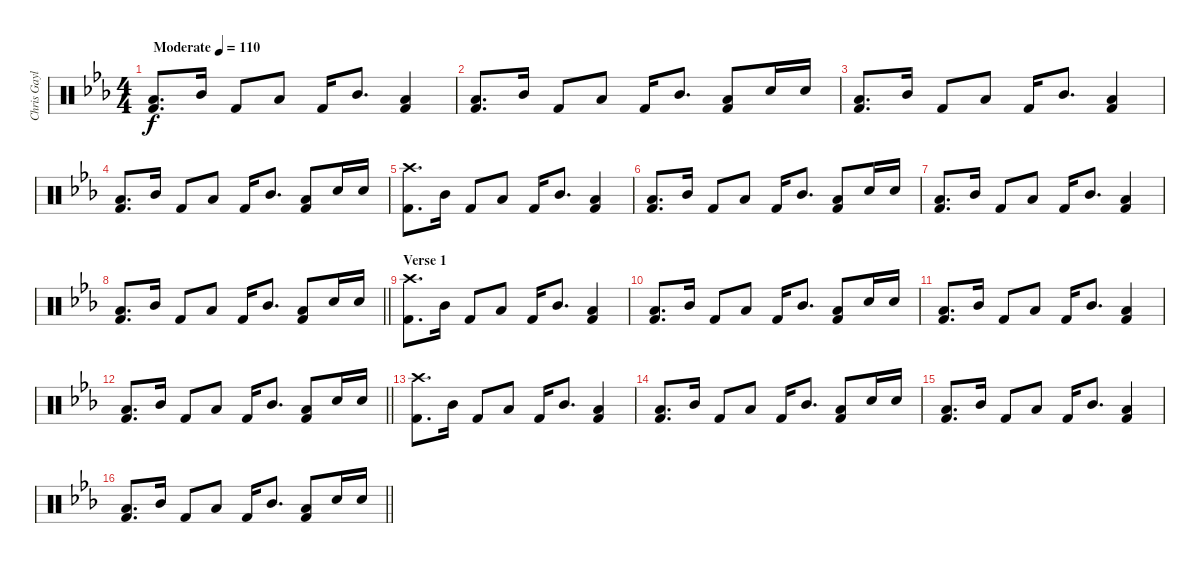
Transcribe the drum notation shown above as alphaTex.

\track ("Chris Gaylor (Percussion)" "Chris Gayl") {instrument percussion}
\staff {score}
\articulation defaults
\ts (4 4)
\tempo (110 "Moderate")
\clef neutral
\ks eb
("Low Tom (hit)" "Kick (hit) 2").8{d dy f} "Mid Tom (hit)".16 "Kick (hit) 2".8 "Low Tom (hit)".8 "Kick (hit) 2".16 "Mid Tom (hit)".8{d} ("Low Tom (hit)" "Kick (hit) 2").4 |
("Low Tom (hit)" "Kick (hit) 2").8{d} "Mid Tom (hit)".16 "Kick (hit) 2".8 "Low Tom (hit)".8 "Kick (hit) 2".16 "Mid Tom (hit)".8{d} ("Low Tom (hit)" "Kick (hit) 2").8 "Electric Snare (hit)".16 "Electric Snare (hit)".16 |
("Low Tom (hit)" "Kick (hit) 2").8{d} "Mid Tom (hit)".16 "Kick (hit) 2".8 "Low Tom (hit)".8 "Kick (hit) 2".16 "Mid Tom (hit)".8{d} ("Low Tom (hit)" "Kick (hit) 2").4 |
("Low Tom (hit)" "Kick (hit) 2").8{d} "Mid Tom (hit)".16 "Kick (hit) 2".8 "Low Tom (hit)".8 "Kick (hit) 2".16 "Mid Tom (hit)".8{d} ("Low Tom (hit)" "Kick (hit) 2").8 "Electric Snare (hit)".16 "Electric Snare (hit)".16 |
("Crash high (hit)" "Kick (hit) 2").8{d} "Mid Tom (hit)".16 "Kick (hit) 2".8 "Low Tom (hit)".8 "Kick (hit) 2".16 "Mid Tom (hit)".8{d} ("Low Tom (hit)" "Kick (hit) 2").4 |
("Low Tom (hit)" "Kick (hit) 2").8{d} "Mid Tom (hit)".16 "Kick (hit) 2".8 "Low Tom (hit)".8 "Kick (hit) 2".16 "Mid Tom (hit)".8{d} ("Low Tom (hit)" "Kick (hit) 2").8 "Electric Snare (hit)".16 "Electric Snare (hit)".16 |
("Low Tom (hit)" "Kick (hit) 2").8{d} "Mid Tom (hit)".16 "Kick (hit) 2".8 "Low Tom (hit)".8 "Kick (hit) 2".16 "Mid Tom (hit)".8{d} ("Low Tom (hit)" "Kick (hit) 2").4 |
\barLineRight lightlight
("Low Tom (hit)" "Kick (hit) 2").8{d} "Mid Tom (hit)".16 "Kick (hit) 2".8 "Low Tom (hit)".8 "Kick (hit) 2".16 "Mid Tom (hit)".8{d} ("Low Tom (hit)" "Kick (hit) 2").8 "Electric Snare (hit)".16 "Electric Snare (hit)".16 |
\section ("" "Verse 1")
("Crash high (hit)" "Kick (hit) 2").8{d} "Mid Tom (hit)".16 "Kick (hit) 2".8 "Low Tom (hit)".8 "Kick (hit) 2".16 "Mid Tom (hit)".8{d} ("Low Tom (hit)" "Kick (hit) 2").4 |
("Low Tom (hit)" "Kick (hit) 2").8{d} "Mid Tom (hit)".16 "Kick (hit) 2".8 "Low Tom (hit)".8 "Kick (hit) 2".16 "Mid Tom (hit)".8{d} ("Low Tom (hit)" "Kick (hit) 2").8 "Electric Snare (hit)".16 "Electric Snare (hit)".16 |
("Low Tom (hit)" "Kick (hit) 2").8{d} "Mid Tom (hit)".16 "Kick (hit) 2".8 "Low Tom (hit)".8 "Kick (hit) 2".16 "Mid Tom (hit)".8{d} ("Low Tom (hit)" "Kick (hit) 2").4 |
\barLineRight lightlight
("Low Tom (hit)" "Kick (hit) 2").8{d} "Mid Tom (hit)".16 "Kick (hit) 2".8 "Low Tom (hit)".8 "Kick (hit) 2".16 "Mid Tom (hit)".8{d} ("Low Tom (hit)" "Kick (hit) 2").8 "Electric Snare (hit)".16 "Electric Snare (hit)".16 |
("Crash high (hit)" "Kick (hit) 2").8{d} "Mid Tom (hit)".16 "Kick (hit) 2".8 "Low Tom (hit)".8 "Kick (hit) 2".16 "Mid Tom (hit)".8{d} ("Low Tom (hit)" "Kick (hit) 2").4 |
("Low Tom (hit)" "Kick (hit) 2").8{d} "Mid Tom (hit)".16 "Kick (hit) 2".8 "Low Tom (hit)".8 "Kick (hit) 2".16 "Mid Tom (hit)".8{d} ("Low Tom (hit)" "Kick (hit) 2").8 "Electric Snare (hit)".16 "Electric Snare (hit)".16 |
("Low Tom (hit)" "Kick (hit) 2").8{d} "Mid Tom (hit)".16 "Kick (hit) 2".8 "Low Tom (hit)".8 "Kick (hit) 2".16 "Mid Tom (hit)".8{d} ("Low Tom (hit)" "Kick (hit) 2").4 |
\barLineRight lightlight
("Low Tom (hit)" "Kick (hit) 2").8{d} "Mid Tom (hit)".16 "Kick (hit) 2".8 "Low Tom (hit)".8 "Kick (hit) 2".16 "Mid Tom (hit)".8{d} ("Low Tom (hit)" "Kick (hit) 2").8 "Electric Snare (hit)".16 "Electric Snare (hit)".16
